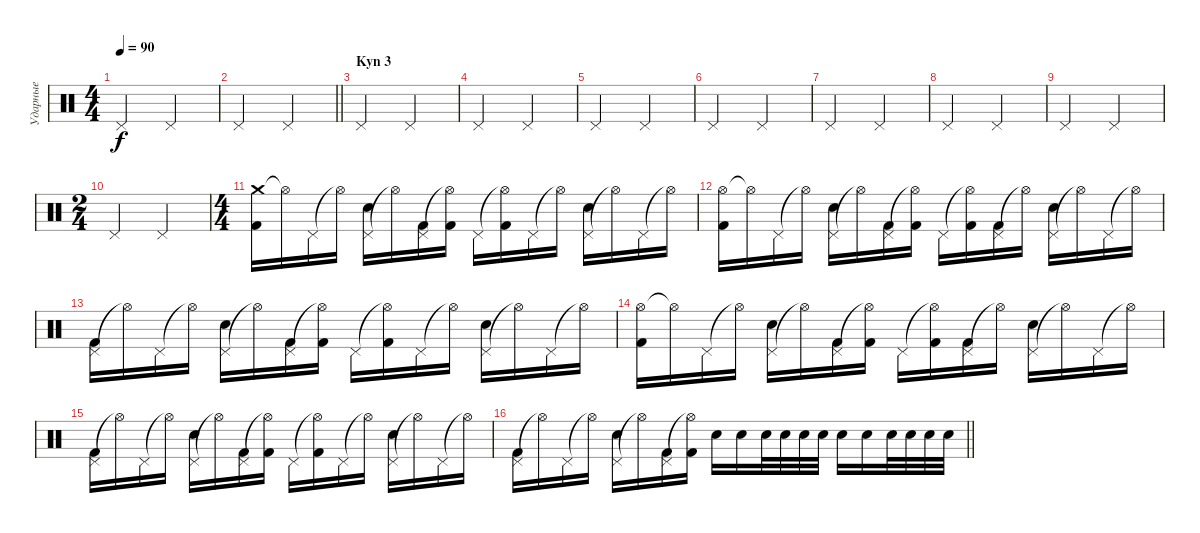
\track ("Ударные" "Ударные") {instrument percussion}
\staff {score}
\articulation defaults
\ts (4 4)
\tempo 90
\clef neutral
\ks c "Pedal Hi-Hat (hit)".2{dy f} "Pedal Hi-Hat (hit)".2
|
\barLineRight lightlight "Pedal Hi-Hat (hit)".2 "Pedal Hi-Hat (hit)".2
|
\section ("" "Kyn 3")
"Pedal Hi-Hat (hit)".2 "Pedal Hi-Hat (hit)".2 |
"Pedal Hi-Hat (hit)".2 "Pedal Hi-Hat (hit)".2 |
"Pedal Hi-Hat (hit)".2 "Pedal Hi-Hat (hit)".2 |
"Pedal Hi-Hat (hit)".2 "Pedal Hi-Hat (hit)".2 |
"Pedal Hi-Hat (hit)".2 "Pedal Hi-Hat (hit)".2 |
"Pedal Hi-Hat (hit)".2 "Pedal Hi-Hat (hit)".2 |
"Pedal Hi-Hat (hit)".2 "Pedal Hi-Hat (hit)".2 |
\ts (2 4)
"Pedal Hi-Hat (hit)".2 "Pedal Hi-Hat (hit)".2 |
\ts (4 4)
("Crash medium (hit)" "Kick (hit) 2").16 "Hi-Hat (open)"{t}.16 "Pedal Hi-Hat (hit)".16 "Hi-Hat (open)"{t}.16 ("Pedal Hi-Hat (hit)" "Snare (hit) 2").16 "Hi-Hat (open)"{t}.16 ("Pedal Hi-Hat (hit)" "Kick (hit) 2").16 ("Hi-Hat (open)"{t} "Kick (hit) 2").16 "Pedal Hi-Hat (hit)".16 ("Hi-Hat (open)"{t} "Kick (hit) 2").16 "Pedal Hi-Hat (hit)".16 "Hi-Hat (open)"{t}.16 ("Pedal Hi-Hat (hit)" "Snare (hit) 2").16 "Hi-Hat (open)"{t}.16 "Pedal Hi-Hat (hit)".16 "Hi-Hat (open)"{t}.16 |
("Hi-Hat (open)" "Kick (hit) 2").16 "Hi-Hat (open)"{t}.16 "Pedal Hi-Hat (hit)".16 "Hi-Hat (open)"{t}.16 ("Pedal Hi-Hat (hit)" "Snare (hit) 2").16 "Hi-Hat (open)"{t}.16 ("Pedal Hi-Hat (hit)" "Kick (hit) 2").16 ("Hi-Hat (open)"{t} "Kick (hit) 2").16 "Pedal Hi-Hat (hit)".16 ("Hi-Hat (open)"{t} "Kick (hit) 2").16 ("Pedal Hi-Hat (hit)" "Kick (hit) 2").16 "Hi-Hat (open)"{t}.16 ("Pedal Hi-Hat (hit)" "Snare (hit) 2").16 "Hi-Hat (open)"{t}.16 "Pedal Hi-Hat (hit)".16 "Hi-Hat (open)"{t}.16 |
("Pedal Hi-Hat (hit)" "Kick (hit) 2").16 "Hi-Hat (open)"{t}.16 "Pedal Hi-Hat (hit)".16 "Hi-Hat (open)"{t}.16 ("Pedal Hi-Hat (hit)" "Snare (hit) 2").16 "Hi-Hat (open)"{t}.16 ("Pedal Hi-Hat (hit)" "Kick (hit) 2").16 ("Hi-Hat (open)"{t} "Kick (hit) 2").16 "Pedal Hi-Hat (hit)".16 ("Hi-Hat (open)"{t} "Kick (hit) 2").16 "Pedal Hi-Hat (hit)".16 "Hi-Hat (open)"{t}.16 ("Pedal Hi-Hat (hit)" "Snare (hit) 2").16 "Hi-Hat (open)"{t}.16 "Pedal Hi-Hat (hit)".16 "Hi-Hat (open)"{t}.16 |
("Hi-Hat (open)" "Kick (hit) 2").16 "Hi-Hat (open)"{t}.16 "Pedal Hi-Hat (hit)".16 "Hi-Hat (open)"{t}.16 ("Pedal Hi-Hat (hit)" "Snare (hit) 2").16 "Hi-Hat (open)"{t}.16 ("Pedal Hi-Hat (hit)" "Kick (hit) 2").16 ("Hi-Hat (open)"{t} "Kick (hit) 2").16 "Pedal Hi-Hat (hit)".16 ("Hi-Hat (open)"{t} "Kick (hit) 2").16 ("Pedal Hi-Hat (hit)" "Kick (hit) 2").16 "Hi-Hat (open)"{t}.16 ("Pedal Hi-Hat (hit)" "Snare (hit) 2").16 "Hi-Hat (open)"{t}.16 "Pedal Hi-Hat (hit)".16 "Hi-Hat (open)"{t}.16 |
("Pedal Hi-Hat (hit)" "Kick (hit) 2").16 "Hi-Hat (open)"{t}.16 "Pedal Hi-Hat (hit)".16 "Hi-Hat (open)"{t}.16 ("Pedal Hi-Hat (hit)" "Snare (hit) 2").16 "Hi-Hat (open)"{t}.16 ("Pedal Hi-Hat (hit)" "Kick (hit) 2").16 ("Hi-Hat (open)"{t} "Kick (hit) 2").16 "Pedal Hi-Hat (hit)".16 ("Hi-Hat (open)"{t} "Kick (hit) 2").16 "Pedal Hi-Hat (hit)".16 "Hi-Hat (open)"{t}.16 ("Pedal Hi-Hat (hit)" "Snare (hit) 2").16 "Hi-Hat (open)"{t}.16 "Pedal Hi-Hat (hit)".16 "Hi-Hat (open)"{t}.16 |
\barLineRight lightlight
("Pedal Hi-Hat (hit)" "Kick (hit) 2").16 "Hi-Hat (open)"{t}.16 "Pedal Hi-Hat (hit)".16 "Hi-Hat (open)"{t}.16 ("Pedal Hi-Hat (hit)" "Snare (hit) 2").16 "Hi-Hat (open)"{t}.16 ("Pedal Hi-Hat (hit)" "Kick (hit) 2").16 ("Hi-Hat (open)"{t} "Kick (hit) 2").16 "Snare (hit) 2".16 "Snare (hit) 2".16 "Snare (hit) 2".32 "Snare (hit) 2".32 "Snare (hit) 2".32 "Snare (hit) 2".32 "Snare (hit) 2".16 "Snare (hit) 2".16 "Snare (hit) 2".32 "Snare (hit) 2".32 "Snare (hit) 2".32 "Snare (hit) 2".32
